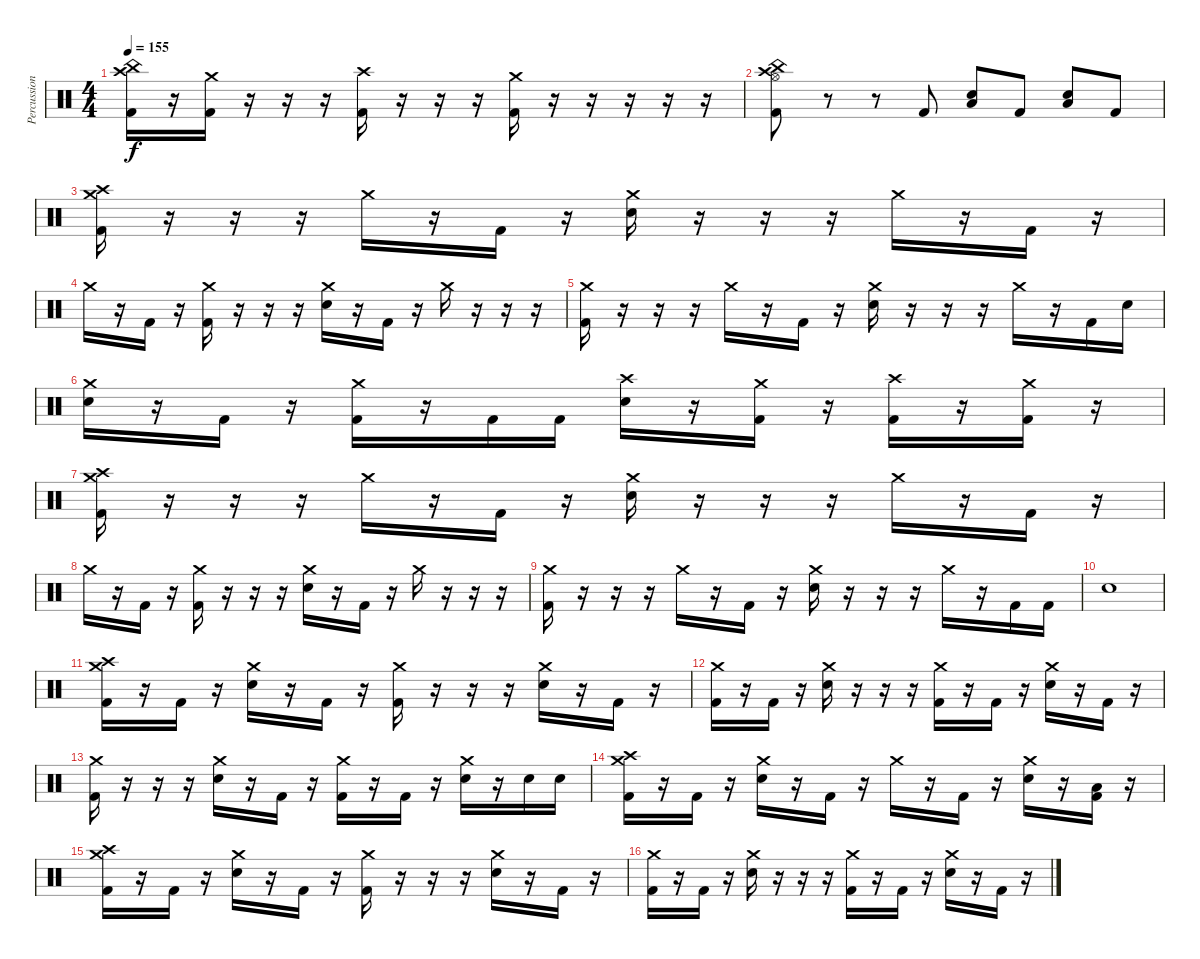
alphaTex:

\track ("Percussion" "Percussion") {instrument percussion}
\staff {score}
\articulation defaults
\ts (4 4)
\tempo 155
\clef neutral
\ks c
("Crash high (hit)" "China (hit)" "Kick (hit) 2").16{dy f} r.16 ("Crash medium (hit)" "Kick (hit) 2").16 r.16 r.16 r.16 ("Crash high (hit)" "Kick (hit) 2").16 r.16 r.16 r.16 ("Crash medium (hit)" "Kick (hit) 2").16 r.16 r.16 r.16 r.16 r.16 |
("Crash high (hit)" "China (hit)" "Hi-Hat (open)" "Kick (hit) 2").8 r.8 r.8 "Kick (hit) 2".8 ("Low Floor Tom (hit)" "Snare (hit) 2").8 "Kick (hit) 2".8 ("Low Floor Tom (hit)" "Snare (hit) 2").8 "Kick (hit) 2".8 |
("Crash high (hit)" "Crash medium (hit)" "Kick (hit) 2").16 r.16 r.16 r.16 "Crash medium (hit)".16 r.16 "Kick (hit) 2".16 r.16 ("Crash medium (hit)" "Snare (hit) 2").16 r.16 r.16 r.16 "Crash medium (hit)".16 r.16 "Kick (hit) 2".16 r.16 |
"Crash medium (hit)".16 r.16 "Kick (hit) 2".16 r.16 ("Crash medium (hit)" "Kick (hit) 2").16 r.16 r.16 r.16 ("Crash medium (hit)" "Snare (hit) 2").16 r.16 "Kick (hit) 2".16 r.16 "Crash medium (hit)".16 r.16 r.16 r.16 |
("Crash medium (hit)" "Kick (hit) 2").16 r.16 r.16 r.16 "Crash medium (hit)".16 r.16 "Kick (hit) 2".16 r.16 ("Crash medium (hit)" "Snare (hit) 2").16 r.16 r.16 r.16 "Crash medium (hit)".16 r.16 "Kick (hit) 2".16 "Snare (hit) 2".16 |
("Crash medium (hit)" "Snare (hit) 2").16 r.16 "Kick (hit) 2".16 r.16 ("Crash medium (hit)" "Kick (hit) 2").16 r.16 "Kick (hit) 2".16 "Kick (hit) 2".16 ("Crash high (hit)" "Snare (hit) 2").16 r.16 ("Crash medium (hit)" "Kick (hit) 2").16 r.16 ("Crash high (hit)" "Kick (hit) 2").16 r.16 ("Crash medium (hit)" "Kick (hit) 2").16 r.16 |
("Crash high (hit)" "Crash medium (hit)" "Kick (hit) 2").16 r.16 r.16 r.16 "Crash medium (hit)".16 r.16 "Kick (hit) 2".16 r.16 ("Crash medium (hit)" "Snare (hit) 2").16 r.16 r.16 r.16 "Crash medium (hit)".16 r.16 "Kick (hit) 2".16 r.16 |
"Crash medium (hit)".16 r.16 "Kick (hit) 2".16 r.16 ("Crash medium (hit)" "Kick (hit) 2").16 r.16 r.16 r.16 ("Crash medium (hit)" "Snare (hit) 2").16 r.16 "Kick (hit) 2".16 r.16 "Crash medium (hit)".16 r.16 r.16 r.16 |
("Crash medium (hit)" "Kick (hit) 2").16 r.16 r.16 r.16 "Crash medium (hit)".16 r.16 "Kick (hit) 2".16 r.16 ("Crash medium (hit)" "Snare (hit) 2").16 r.16 r.16 r.16 "Crash medium (hit)".16 r.16 "Kick (hit) 2".16 "Kick (hit) 2".16 |
"Snare (hit) 2".1 |
("Crash high (hit)" "Crash medium (hit)" "Kick (hit) 2").16 r.16 "Kick (hit) 2".16 r.16 ("Crash medium (hit)" "Snare (hit) 2").16 r.16 "Kick (hit) 2".16 r.16 ("Crash medium (hit)" "Kick (hit) 2").16 r.16 r.16 r.16 ("Crash medium (hit)" "Snare (hit) 2").16 r.16 "Kick (hit) 2".16 r.16 |
("Crash medium (hit)" "Kick (hit) 2").16 r.16 "Kick (hit) 2".16 r.16 ("Crash medium (hit)" "Snare (hit) 2").16 r.16 r.16 r.16 ("Crash medium (hit)" "Kick (hit) 2").16 r.16 "Kick (hit) 2".16 r.16 ("Crash medium (hit)" "Snare (hit) 2").16 r.16 "Kick (hit) 2".16 r.16 |
("Crash medium (hit)" "Kick (hit) 2").16 r.16 r.16 r.16 ("Crash medium (hit)" "Snare (hit) 2").16 r.16 "Kick (hit) 2".16 r.16 ("Crash medium (hit)" "Kick (hit) 2").16 r.16 "Kick (hit) 2".16 r.16 ("Crash medium (hit)" "Snare (hit) 2").16 r.16 "Snare (hit) 2".16 "Snare (hit) 2".16 |
("Crash high (hit)" "Crash medium (hit)" "Kick (hit) 2").16 r.16 "Kick (hit) 2".16 r.16 ("Crash medium (hit)" "Snare (hit) 2").16 r.16 "Kick (hit) 2".16 r.16 "Crash medium (hit)".16 r.16 "Kick (hit) 2".16 r.16 ("Crash medium (hit)" "Snare (hit) 2").16 r.16 ("Low Floor Tom (hit)" "Kick (hit) 2").16 r.16 |
("Crash high (hit)" "Crash medium (hit)" "Kick (hit) 2").16 r.16 "Kick (hit) 2".16 r.16 ("Crash medium (hit)" "Snare (hit) 2").16 r.16 "Kick (hit) 2".16 r.16 ("Crash medium (hit)" "Kick (hit) 2").16 r.16 r.16 r.16 ("Crash medium (hit)" "Snare (hit) 2").16 r.16 "Kick (hit) 2".16 r.16 |
("Crash medium (hit)" "Kick (hit) 2").16 r.16 "Kick (hit) 2".16 r.16 ("Crash medium (hit)" "Snare (hit) 2").16 r.16 r.16 r.16 ("Crash medium (hit)" "Kick (hit) 2").16 r.16 "Kick (hit) 2".16 r.16 ("Crash medium (hit)" "Snare (hit) 2").16 r.16 "Kick (hit) 2".16 r.16
